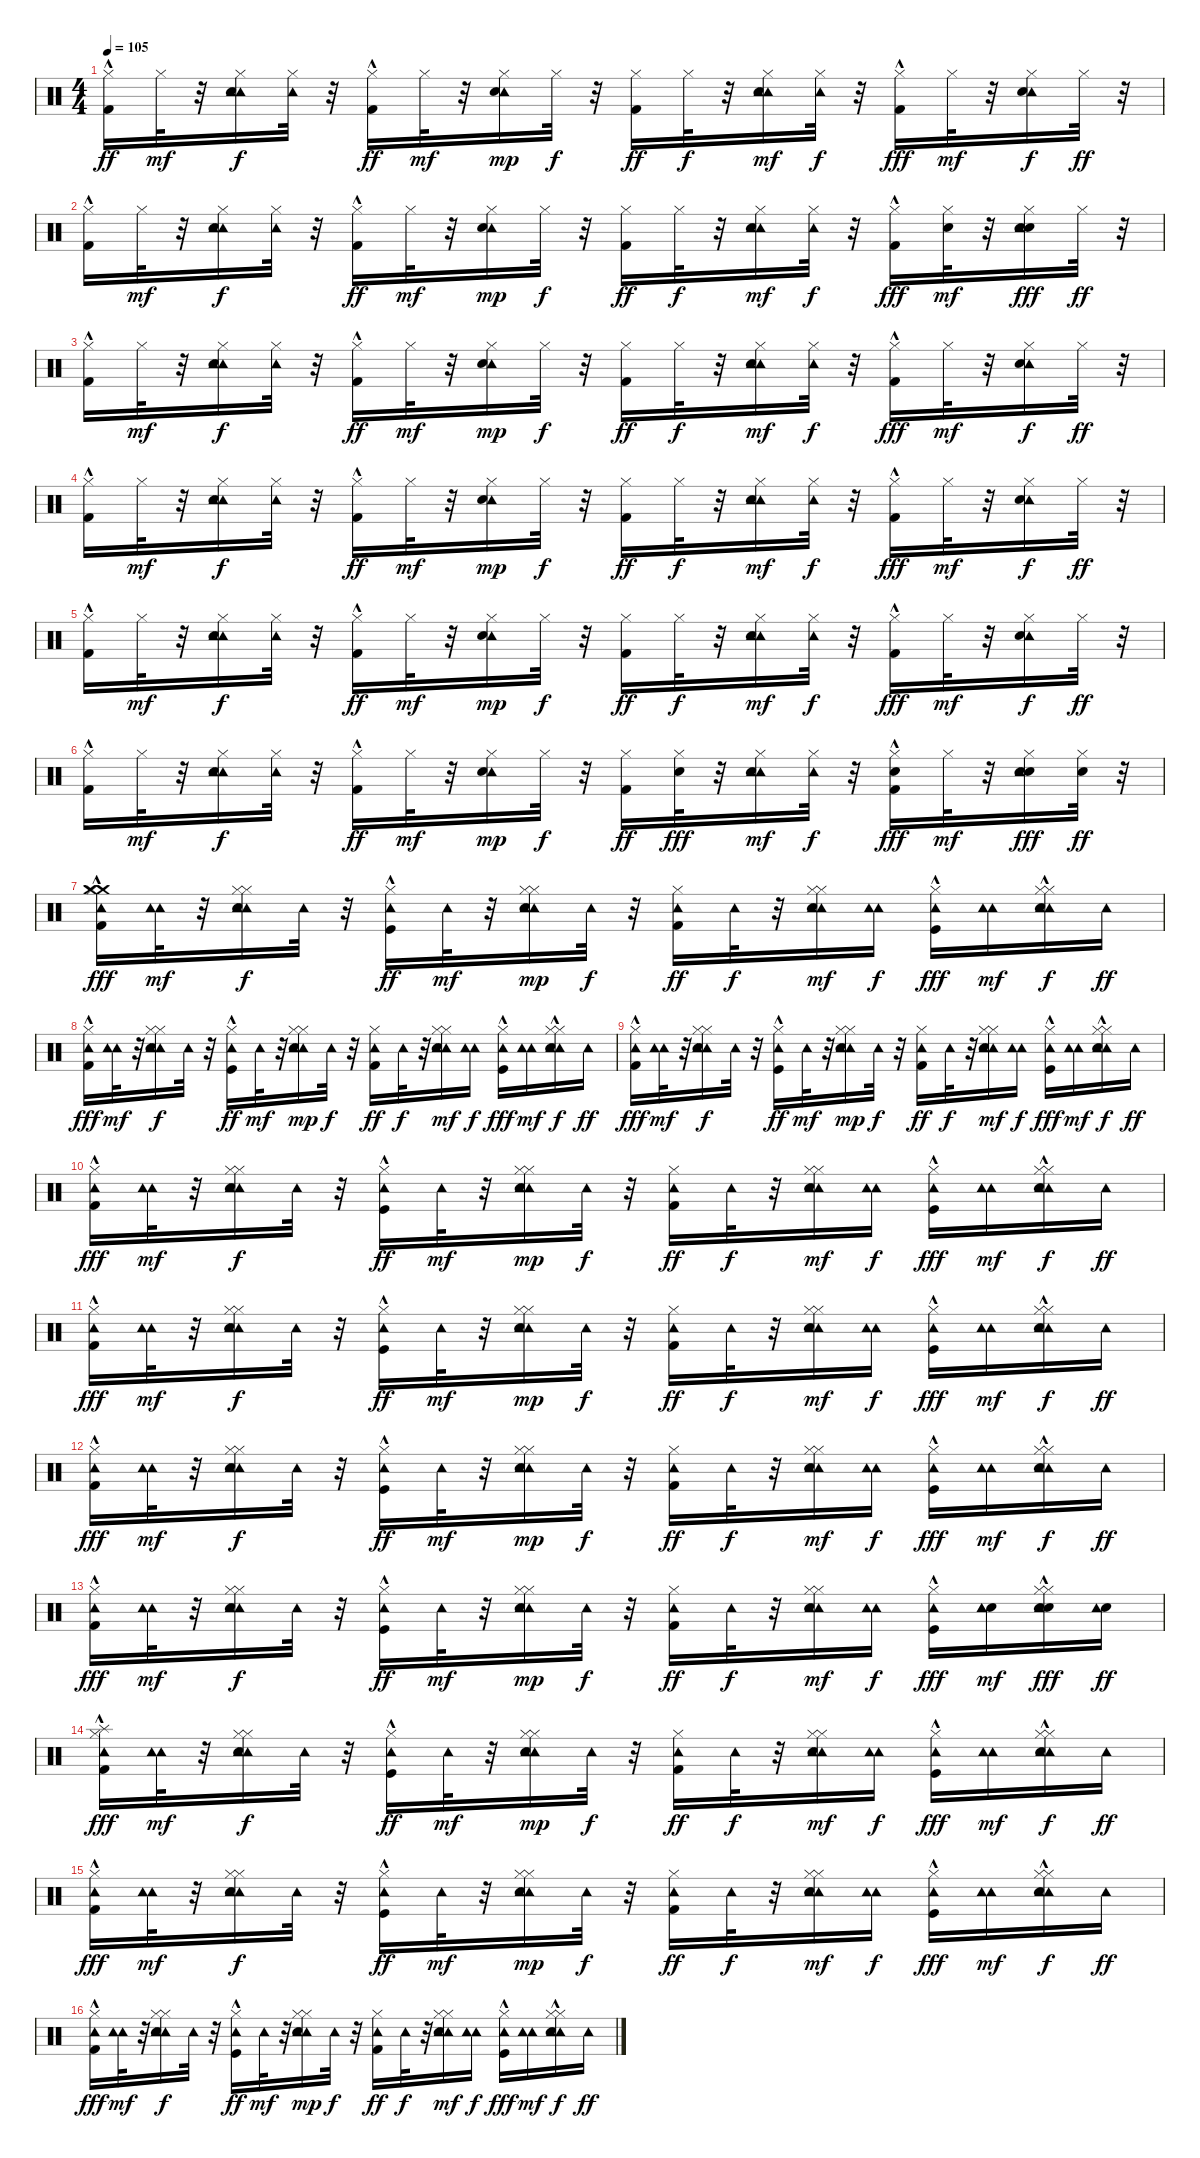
\track "" {instrument percussion}
\staff {score}
\articulation defaults
\ts (4 4)
\tempo 105
\clef neutral
\ks c
("Hi-Hat (closed)" "Kick (hit) 2"{hac}).16{dy ff} "Hi-Hat (closed)".32{dy mf} r.32 ("Hi-Hat (closed)" "Tambourine (hit)" "Snare (hit) 2" "Tambourine (hit)").16{dy f} ("Hi-Hat (closed)" "Tambourine (hit)").32 r.32 ("Hi-Hat (closed)" "Kick (hit) 2"{hac}).16{dy ff} "Hi-Hat (closed)".32{dy mf} r.32 ("Hi-Hat (closed)" "Tambourine (hit)" "Snare (hit) 2").16{dy mp} "Hi-Hat (closed)".32{dy f} r.32 ("Hi-Hat (closed)" "Kick (hit) 2").16{dy ff} "Hi-Hat (closed)".32{dy f} r.32 ("Hi-Hat (closed)" "Tambourine (hit)" "Snare (hit) 2" "Tambourine (hit)").16{dy mf} ("Tambourine (hit)" "Hi-Hat (closed)").32{dy f} r.32 ("Kick (hit) 2"{hac} "Hi-Hat (closed)").16{dy fff} "Hi-Hat (closed)".32{dy mf} r.32 ("Tambourine (hit)" "Snare (hit) 2" "Hi-Hat (closed)").16{dy f} "Hi-Hat (closed)".32{dy ff} r.32 |
("Hi-Hat (closed)" "Kick (hit) 2"{hac}).16 "Hi-Hat (closed)".32{dy mf} r.32 ("Hi-Hat (closed)" "Tambourine (hit)" "Snare (hit) 2" "Tambourine (hit)").16{dy f} ("Hi-Hat (closed)" "Tambourine (hit)").32 r.32 ("Hi-Hat (closed)" "Kick (hit) 2"{hac}).16{dy ff} "Hi-Hat (closed)".32{dy mf} r.32 ("Hi-Hat (closed)" "Tambourine (hit)" "Snare (hit) 2").16{dy mp} "Hi-Hat (closed)".32{dy f} r.32 ("Hi-Hat (closed)" "Kick (hit) 2").16{dy ff} "Hi-Hat (closed)".32{dy f} r.32 ("Hi-Hat (closed)" "Tambourine (hit)" "Snare (hit) 2" "Tambourine (hit)").16{dy mf} ("Tambourine (hit)" "Hi-Hat (closed)").32{dy f} r.32 ("Kick (hit) 2"{hac} "Hi-Hat (closed)").16{dy fff} ("Snare (hit) 2" "Hi-Hat (closed)").32{dy mf} r.32 ("Snare (hit) 2" "Tambourine (hit)" "Snare (hit) 2" "Hi-Hat (closed)").16{dy fff} "Hi-Hat (closed)".32{dy ff} r.32 |
("Hi-Hat (closed)" "Kick (hit) 2"{hac}).16 "Hi-Hat (closed)".32{dy mf} r.32 ("Hi-Hat (closed)" "Tambourine (hit)" "Snare (hit) 2" "Tambourine (hit)").16{dy f} ("Hi-Hat (closed)" "Tambourine (hit)").32 r.32 ("Hi-Hat (closed)" "Kick (hit) 2"{hac}).16{dy ff} "Hi-Hat (closed)".32{dy mf} r.32 ("Hi-Hat (closed)" "Tambourine (hit)" "Snare (hit) 2").16{dy mp} "Hi-Hat (closed)".32{dy f} r.32 ("Hi-Hat (closed)" "Kick (hit) 2").16{dy ff} "Hi-Hat (closed)".32{dy f} r.32 ("Hi-Hat (closed)" "Tambourine (hit)" "Snare (hit) 2" "Tambourine (hit)").16{dy mf} ("Tambourine (hit)" "Hi-Hat (closed)").32{dy f} r.32 ("Kick (hit) 2"{hac} "Hi-Hat (closed)").16{dy fff} "Hi-Hat (closed)".32{dy mf} r.32 ("Tambourine (hit)" "Snare (hit) 2" "Hi-Hat (closed)").16{dy f} "Hi-Hat (closed)".32{dy ff} r.32 |
("Hi-Hat (closed)" "Kick (hit) 2"{hac}).16 "Hi-Hat (closed)".32{dy mf} r.32 ("Hi-Hat (closed)" "Tambourine (hit)" "Snare (hit) 2" "Tambourine (hit)").16{dy f} ("Hi-Hat (closed)" "Tambourine (hit)").32 r.32 ("Hi-Hat (closed)" "Kick (hit) 2"{hac}).16{dy ff} "Hi-Hat (closed)".32{dy mf} r.32 ("Hi-Hat (closed)" "Tambourine (hit)" "Snare (hit) 2").16{dy mp} "Hi-Hat (closed)".32{dy f} r.32 ("Hi-Hat (closed)" "Kick (hit) 2").16{dy ff} "Hi-Hat (closed)".32{dy f} r.32 ("Hi-Hat (closed)" "Tambourine (hit)" "Snare (hit) 2" "Tambourine (hit)").16{dy mf} ("Tambourine (hit)" "Hi-Hat (closed)").32{dy f} r.32 ("Kick (hit) 2"{hac} "Hi-Hat (closed)").16{dy fff} "Hi-Hat (closed)".32{dy mf} r.32 ("Tambourine (hit)" "Snare (hit) 2" "Hi-Hat (closed)").16{dy f} "Hi-Hat (closed)".32{dy ff} r.32 |
("Hi-Hat (closed)" "Kick (hit) 2"{hac}).16 "Hi-Hat (closed)".32{dy mf} r.32 ("Hi-Hat (closed)" "Tambourine (hit)" "Snare (hit) 2" "Tambourine (hit)").16{dy f} ("Hi-Hat (closed)" "Tambourine (hit)").32 r.32 ("Hi-Hat (closed)" "Kick (hit) 2"{hac}).16{dy ff} "Hi-Hat (closed)".32{dy mf} r.32 ("Hi-Hat (closed)" "Tambourine (hit)" "Snare (hit) 2").16{dy mp} "Hi-Hat (closed)".32{dy f} r.32 ("Hi-Hat (closed)" "Kick (hit) 2").16{dy ff} "Hi-Hat (closed)".32{dy f} r.32 ("Hi-Hat (closed)" "Tambourine (hit)" "Snare (hit) 2" "Tambourine (hit)").16{dy mf} ("Tambourine (hit)" "Hi-Hat (closed)").32{dy f} r.32 ("Kick (hit) 2"{hac} "Hi-Hat (closed)").16{dy fff} "Hi-Hat (closed)".32{dy mf} r.32 ("Tambourine (hit)" "Snare (hit) 2" "Hi-Hat (closed)").16{dy f} "Hi-Hat (closed)".32{dy ff} r.32 |
("Hi-Hat (closed)" "Kick (hit) 2"{hac}).16 "Hi-Hat (closed)".32{dy mf} r.32 ("Hi-Hat (closed)" "Tambourine (hit)" "Snare (hit) 2" "Tambourine (hit)").16{dy f} ("Hi-Hat (closed)" "Tambourine (hit)").32 r.32 ("Hi-Hat (closed)" "Kick (hit) 2"{hac}).16{dy ff} "Hi-Hat (closed)".32{dy mf} r.32 ("Hi-Hat (closed)" "Tambourine (hit)" "Snare (hit) 2").16{dy mp} "Hi-Hat (closed)".32{dy f} r.32 ("Hi-Hat (closed)" "Kick (hit) 2").16{dy ff} ("Snare (hit) 2" "Hi-Hat (closed)").32{dy fff} r.32 ("Hi-Hat (closed)" "Tambourine (hit)" "Snare (hit) 2" "Tambourine (hit)").16{dy mf} ("Tambourine (hit)" "Hi-Hat (closed)").32{dy f} r.32 ("Snare (hit) 2" "Kick (hit) 2"{hac} "Hi-Hat (closed)").16{dy fff} "Hi-Hat (closed)".32{dy mf} r.32 ("Snare (hit) 2" "Tambourine (hit)" "Snare (hit) 2" "Hi-Hat (closed)").16{dy fff} ("Snare (hit) 2" "Hi-Hat (closed)").32{dy ff} r.32 |
("Crash medium (hit)" "Crash medium (hit)" "Kick (hit) 2"{hac} "Hi-Hat (closed)" "Tambourine (hit)").16{dy fff} ("Tambourine (hit)" "Tambourine (hit)").32{dy mf} r.32 ("Hi-Hat (closed)" "Tambourine (hit)" "Hi-Hat (closed)" "Snare (hit) 2" "Tambourine (hit)" "Tambourine (hit)").16{dy f} "Tambourine (hit)".32 r.32 ("Kick (hit)"{hac} "Hi-Hat (closed)" "Tambourine (hit)").16{dy ff} "Tambourine (hit)".32{dy mf} r.32 ("Tambourine (hit)" "Hi-Hat (closed)" "Tambourine (hit)" "Hi-Hat (closed)" "Snare (hit) 2").16{dy mp} "Tambourine (hit)".32{dy f} r.32 ("Tambourine (hit)" "Hi-Hat (closed)" "Kick (hit) 2").16{dy ff} "Tambourine (hit)".32{dy f} r.32 ("Tambourine (hit)" "Hi-Hat (closed)" "Hi-Hat (closed)" "Tambourine (hit)" "Snare (hit) 2").16{dy mf} ("Tambourine (hit)" "Tambourine (hit)").16{dy f} ("Tambourine (hit)" "Kick (hit)"{hac} "Hi-Hat (closed)").16{dy fff} ("Tambourine (hit)" "Tambourine (hit)").16{dy mf} ("Hi-Hat (closed)"{hac} "Tambourine (hit)" "Hi-Hat (closed)"{hac} "Snare (hit) 2" "Tambourine (hit)").16{dy f} "Tambourine (hit)".16{dy ff} |
("Kick (hit) 2"{hac} "Hi-Hat (closed)" "Tambourine (hit)").16{dy fff} ("Tambourine (hit)" "Tambourine (hit)").32{dy mf} r.32 ("Hi-Hat (closed)" "Tambourine (hit)" "Hi-Hat (closed)" "Snare (hit) 2" "Tambourine (hit)" "Tambourine (hit)").16{dy f} "Tambourine (hit)".32 r.32 ("Kick (hit)"{hac} "Hi-Hat (closed)" "Tambourine (hit)").16{dy ff} "Tambourine (hit)".32{dy mf} r.32 ("Tambourine (hit)" "Hi-Hat (closed)" "Tambourine (hit)" "Hi-Hat (closed)" "Snare (hit) 2").16{dy mp} "Tambourine (hit)".32{dy f} r.32 ("Tambourine (hit)" "Hi-Hat (closed)" "Kick (hit) 2").16{dy ff} "Tambourine (hit)".32{dy f} r.32 ("Tambourine (hit)" "Hi-Hat (closed)" "Hi-Hat (closed)" "Tambourine (hit)" "Snare (hit) 2").16{dy mf} ("Tambourine (hit)" "Tambourine (hit)").16{dy f} ("Tambourine (hit)" "Kick (hit)"{hac} "Hi-Hat (closed)").16{dy fff} ("Tambourine (hit)" "Tambourine (hit)").16{dy mf} ("Hi-Hat (closed)"{hac} "Tambourine (hit)" "Hi-Hat (closed)"{hac} "Snare (hit) 2" "Tambourine (hit)").16{dy f} "Tambourine (hit)".16{dy ff} |
("Kick (hit) 2"{hac} "Hi-Hat (closed)" "Tambourine (hit)").16{dy fff} ("Tambourine (hit)" "Tambourine (hit)").32{dy mf} r.32 ("Hi-Hat (closed)" "Tambourine (hit)" "Hi-Hat (closed)" "Snare (hit) 2" "Tambourine (hit)" "Tambourine (hit)").16{dy f} "Tambourine (hit)".32 r.32 ("Kick (hit)"{hac} "Hi-Hat (closed)" "Tambourine (hit)").16{dy ff} "Tambourine (hit)".32{dy mf} r.32 ("Tambourine (hit)" "Hi-Hat (closed)" "Tambourine (hit)" "Hi-Hat (closed)" "Snare (hit) 2").16{dy mp} "Tambourine (hit)".32{dy f} r.32 ("Tambourine (hit)" "Hi-Hat (closed)" "Kick (hit) 2").16{dy ff} "Tambourine (hit)".32{dy f} r.32 ("Tambourine (hit)" "Hi-Hat (closed)" "Hi-Hat (closed)" "Tambourine (hit)" "Snare (hit) 2").16{dy mf} ("Tambourine (hit)" "Tambourine (hit)").16{dy f} ("Tambourine (hit)" "Kick (hit)"{hac} "Hi-Hat (closed)").16{dy fff} ("Tambourine (hit)" "Tambourine (hit)").16{dy mf} ("Hi-Hat (closed)"{hac} "Tambourine (hit)" "Hi-Hat (closed)"{hac} "Snare (hit) 2" "Tambourine (hit)").16{dy f} "Tambourine (hit)".16{dy ff} |
("Kick (hit) 2"{hac} "Hi-Hat (closed)" "Tambourine (hit)").16{dy fff} ("Tambourine (hit)" "Tambourine (hit)").32{dy mf} r.32 ("Hi-Hat (closed)" "Tambourine (hit)" "Hi-Hat (closed)" "Snare (hit) 2" "Tambourine (hit)" "Tambourine (hit)").16{dy f} "Tambourine (hit)".32 r.32 ("Kick (hit)"{hac} "Hi-Hat (closed)" "Tambourine (hit)").16{dy ff} "Tambourine (hit)".32{dy mf} r.32 ("Tambourine (hit)" "Hi-Hat (closed)" "Tambourine (hit)" "Hi-Hat (closed)" "Snare (hit) 2").16{dy mp} "Tambourine (hit)".32{dy f} r.32 ("Tambourine (hit)" "Hi-Hat (closed)" "Kick (hit) 2").16{dy ff} "Tambourine (hit)".32{dy f} r.32 ("Tambourine (hit)" "Hi-Hat (closed)" "Hi-Hat (closed)" "Tambourine (hit)" "Snare (hit) 2").16{dy mf} ("Tambourine (hit)" "Tambourine (hit)").16{dy f} ("Tambourine (hit)" "Kick (hit)"{hac} "Hi-Hat (closed)").16{dy fff} ("Tambourine (hit)" "Tambourine (hit)").16{dy mf} ("Hi-Hat (closed)"{hac} "Tambourine (hit)" "Hi-Hat (closed)"{hac} "Snare (hit) 2" "Tambourine (hit)").16{dy f} "Tambourine (hit)".16{dy ff} |
("Kick (hit) 2"{hac} "Hi-Hat (closed)" "Tambourine (hit)").16{dy fff} ("Tambourine (hit)" "Tambourine (hit)").32{dy mf} r.32 ("Hi-Hat (closed)" "Tambourine (hit)" "Hi-Hat (closed)" "Snare (hit) 2" "Tambourine (hit)" "Tambourine (hit)").16{dy f} "Tambourine (hit)".32 r.32 ("Kick (hit)"{hac} "Hi-Hat (closed)" "Tambourine (hit)").16{dy ff} "Tambourine (hit)".32{dy mf} r.32 ("Tambourine (hit)" "Hi-Hat (closed)" "Tambourine (hit)" "Hi-Hat (closed)" "Snare (hit) 2").16{dy mp} "Tambourine (hit)".32{dy f} r.32 ("Tambourine (hit)" "Hi-Hat (closed)" "Kick (hit) 2").16{dy ff} "Tambourine (hit)".32{dy f} r.32 ("Tambourine (hit)" "Hi-Hat (closed)" "Hi-Hat (closed)" "Tambourine (hit)" "Snare (hit) 2").16{dy mf} ("Tambourine (hit)" "Tambourine (hit)").16{dy f} ("Tambourine (hit)" "Kick (hit)"{hac} "Hi-Hat (closed)").16{dy fff} ("Tambourine (hit)" "Tambourine (hit)").16{dy mf} ("Hi-Hat (closed)"{hac} "Tambourine (hit)" "Hi-Hat (closed)"{hac} "Snare (hit) 2" "Tambourine (hit)").16{dy f} "Tambourine (hit)".16{dy ff} |
("Kick (hit) 2"{hac} "Hi-Hat (closed)" "Tambourine (hit)").16{dy fff} ("Tambourine (hit)" "Tambourine (hit)").32{dy mf} r.32 ("Hi-Hat (closed)" "Tambourine (hit)" "Hi-Hat (closed)" "Snare (hit) 2" "Tambourine (hit)" "Tambourine (hit)").16{dy f} "Tambourine (hit)".32 r.32 ("Kick (hit)"{hac} "Hi-Hat (closed)" "Tambourine (hit)").16{dy ff} "Tambourine (hit)".32{dy mf} r.32 ("Tambourine (hit)" "Hi-Hat (closed)" "Tambourine (hit)" "Hi-Hat (closed)" "Snare (hit) 2").16{dy mp} "Tambourine (hit)".32{dy f} r.32 ("Tambourine (hit)" "Hi-Hat (closed)" "Kick (hit) 2").16{dy ff} "Tambourine (hit)".32{dy f} r.32 ("Tambourine (hit)" "Hi-Hat (closed)" "Hi-Hat (closed)" "Tambourine (hit)" "Snare (hit) 2").16{dy mf} ("Tambourine (hit)" "Tambourine (hit)").16{dy f} ("Tambourine (hit)" "Kick (hit)"{hac} "Hi-Hat (closed)").16{dy fff} ("Tambourine (hit)" "Tambourine (hit)").16{dy mf} ("Hi-Hat (closed)"{hac} "Tambourine (hit)" "Hi-Hat (closed)"{hac} "Snare (hit) 2" "Tambourine (hit)").16{dy f} "Tambourine (hit)".16{dy ff} |
("Kick (hit) 2"{hac} "Hi-Hat (closed)" "Tambourine (hit)").16{dy fff} ("Tambourine (hit)" "Tambourine (hit)").32{dy mf} r.32 ("Hi-Hat (closed)" "Tambourine (hit)" "Hi-Hat (closed)" "Snare (hit) 2" "Tambourine (hit)" "Tambourine (hit)").16{dy f} "Tambourine (hit)".32 r.32 ("Kick (hit)"{hac} "Hi-Hat (closed)" "Tambourine (hit)").16{dy ff} "Tambourine (hit)".32{dy mf} r.32 ("Tambourine (hit)" "Hi-Hat (closed)" "Tambourine (hit)" "Hi-Hat (closed)" "Snare (hit) 2").16{dy mp} "Tambourine (hit)".32{dy f} r.32 ("Tambourine (hit)" "Hi-Hat (closed)" "Kick (hit) 2").16{dy ff} "Tambourine (hit)".32{dy f} r.32 ("Tambourine (hit)" "Hi-Hat (closed)" "Hi-Hat (closed)" "Tambourine (hit)" "Snare (hit) 2").16{dy mf} ("Tambourine (hit)" "Tambourine (hit)").16{dy f} ("Tambourine (hit)" "Kick (hit)"{hac} "Hi-Hat (closed)").16{dy fff} ("Snare (hit) 2" "Tambourine (hit)" "Tambourine (hit)").16{dy mf} ("Snare (hit) 2" "Hi-Hat (closed)"{hac} "Tambourine (hit)" "Hi-Hat (closed)"{hac} "Snare (hit) 2" "Tambourine (hit)").16{dy fff} ("Snare (hit) 2" "Tambourine (hit)").16{dy ff} |
("Splash (hit)" "Kick (hit) 2"{hac} "Hi-Hat (closed)" "Tambourine (hit)").16{dy fff} ("Tambourine (hit)" "Tambourine (hit)").32{dy mf} r.32 ("Hi-Hat (closed)" "Tambourine (hit)" "Hi-Hat (closed)" "Snare (hit) 2" "Tambourine (hit)" "Tambourine (hit)").16{dy f} "Tambourine (hit)".32 r.32 ("Kick (hit)"{hac} "Hi-Hat (closed)" "Tambourine (hit)").16{dy ff} "Tambourine (hit)".32{dy mf} r.32 ("Tambourine (hit)" "Hi-Hat (closed)" "Tambourine (hit)" "Hi-Hat (closed)" "Snare (hit) 2").16{dy mp} "Tambourine (hit)".32{dy f} r.32 ("Tambourine (hit)" "Hi-Hat (closed)" "Kick (hit) 2").16{dy ff} "Tambourine (hit)".32{dy f} r.32 ("Tambourine (hit)" "Hi-Hat (closed)" "Hi-Hat (closed)" "Tambourine (hit)" "Snare (hit) 2").16{dy mf} ("Tambourine (hit)" "Tambourine (hit)").16{dy f} ("Tambourine (hit)" "Kick (hit)"{hac} "Hi-Hat (closed)").16{dy fff} ("Tambourine (hit)" "Tambourine (hit)").16{dy mf} ("Hi-Hat (closed)"{hac} "Tambourine (hit)" "Hi-Hat (closed)"{hac} "Snare (hit) 2" "Tambourine (hit)").16{dy f} "Tambourine (hit)".16{dy ff} |
("Kick (hit) 2"{hac} "Hi-Hat (closed)" "Tambourine (hit)").16{dy fff} ("Tambourine (hit)" "Tambourine (hit)").32{dy mf} r.32 ("Hi-Hat (closed)" "Tambourine (hit)" "Hi-Hat (closed)" "Snare (hit) 2" "Tambourine (hit)" "Tambourine (hit)").16{dy f} "Tambourine (hit)".32 r.32 ("Kick (hit)"{hac} "Hi-Hat (closed)" "Tambourine (hit)").16{dy ff} "Tambourine (hit)".32{dy mf} r.32 ("Tambourine (hit)" "Hi-Hat (closed)" "Tambourine (hit)" "Hi-Hat (closed)" "Snare (hit) 2").16{dy mp} "Tambourine (hit)".32{dy f} r.32 ("Tambourine (hit)" "Hi-Hat (closed)" "Kick (hit) 2").16{dy ff} "Tambourine (hit)".32{dy f} r.32 ("Tambourine (hit)" "Hi-Hat (closed)" "Hi-Hat (closed)" "Tambourine (hit)" "Snare (hit) 2").16{dy mf} ("Tambourine (hit)" "Tambourine (hit)").16{dy f} ("Tambourine (hit)" "Kick (hit)"{hac} "Hi-Hat (closed)").16{dy fff} ("Tambourine (hit)" "Tambourine (hit)").16{dy mf} ("Hi-Hat (closed)"{hac} "Tambourine (hit)" "Hi-Hat (closed)"{hac} "Snare (hit) 2" "Tambourine (hit)").16{dy f} "Tambourine (hit)".16{dy ff} |
("Kick (hit) 2"{hac} "Hi-Hat (closed)" "Tambourine (hit)").16{dy fff} ("Tambourine (hit)" "Tambourine (hit)").32{dy mf} r.32 ("Hi-Hat (closed)" "Tambourine (hit)" "Hi-Hat (closed)" "Snare (hit) 2" "Tambourine (hit)" "Tambourine (hit)").16{dy f} "Tambourine (hit)".32 r.32 ("Kick (hit)"{hac} "Hi-Hat (closed)" "Tambourine (hit)").16{dy ff} "Tambourine (hit)".32{dy mf} r.32 ("Tambourine (hit)" "Hi-Hat (closed)" "Tambourine (hit)" "Hi-Hat (closed)" "Snare (hit) 2").16{dy mp} "Tambourine (hit)".32{dy f} r.32 ("Tambourine (hit)" "Hi-Hat (closed)" "Kick (hit) 2").16{dy ff} "Tambourine (hit)".32{dy f} r.32 ("Tambourine (hit)" "Hi-Hat (closed)" "Hi-Hat (closed)" "Tambourine (hit)" "Snare (hit) 2").16{dy mf} ("Tambourine (hit)" "Tambourine (hit)").16{dy f} ("Tambourine (hit)" "Kick (hit)"{hac} "Hi-Hat (closed)").16{dy fff} ("Tambourine (hit)" "Tambourine (hit)").16{dy mf} ("Hi-Hat (closed)"{hac} "Tambourine (hit)" "Hi-Hat (closed)"{hac} "Snare (hit) 2" "Tambourine (hit)").16{dy f} "Tambourine (hit)".16{dy ff}
